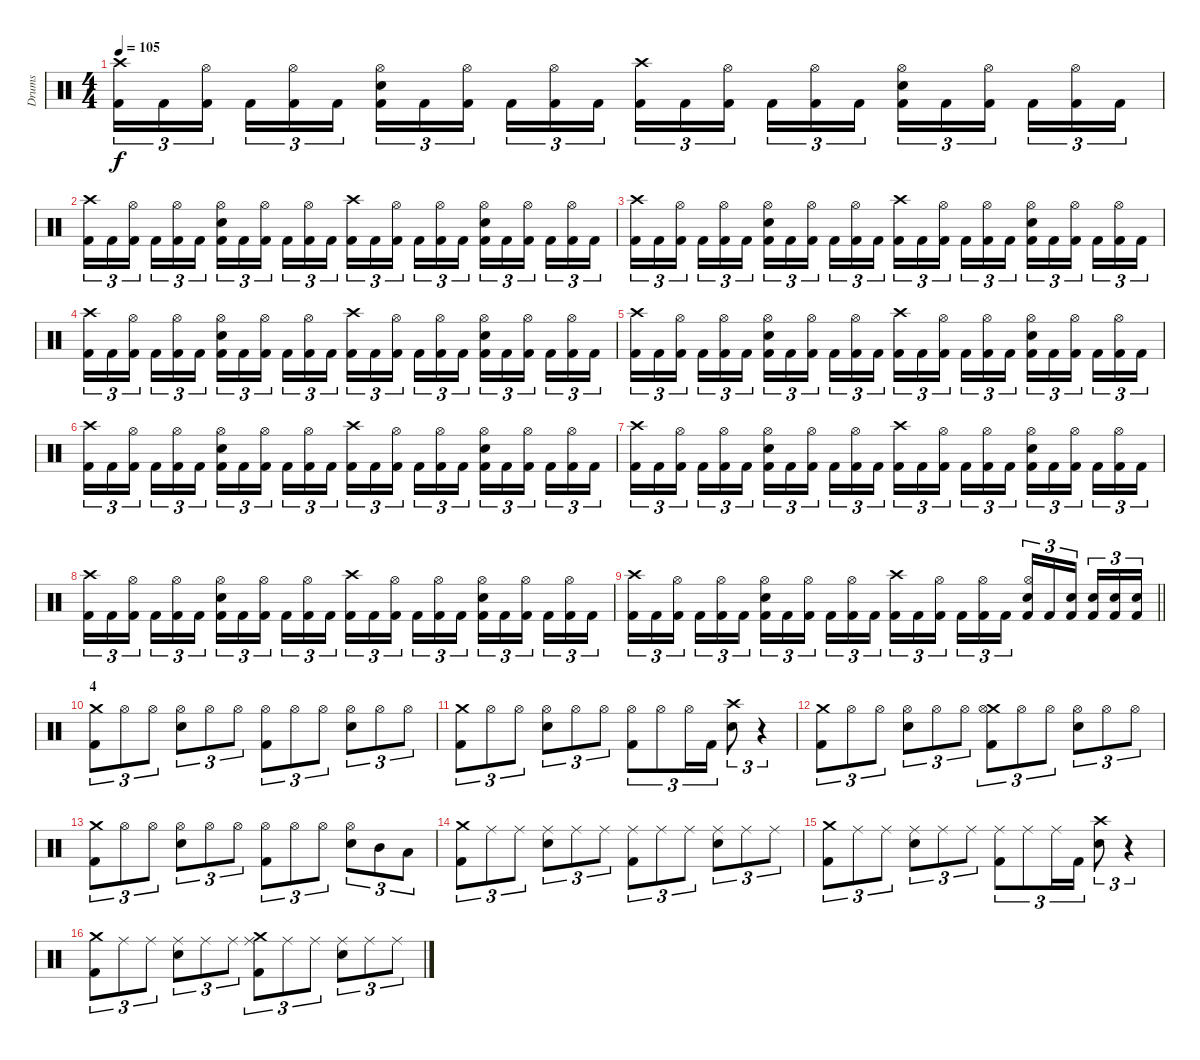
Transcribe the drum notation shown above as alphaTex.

\track ("Drums" "Drums") {instrument percussion}
\staff {score}
\articulation defaults
\ts (4 4)
\tempo 105
\clef neutral
\ks c
("Crash high (hit)" "Kick (hit) 2").16{tu (3 2) dy f} "Kick (hit) 2".16{tu (3 2)} ("Hi-Hat (open)" "Kick (hit) 2").16{tu (3 2) beam splitsecondary} "Kick (hit) 2".16{tu (3 2)} ("Hi-Hat (open)" "Kick (hit) 2").16{tu (3 2)} "Kick (hit) 2".16{tu (3 2)} ("Hi-Hat (open)" "Electric Snare (hit)" "Kick (hit) 2").16{tu (3 2)} "Kick (hit) 2".16{tu (3 2)} ("Hi-Hat (open)" "Kick (hit) 2").16{tu (3 2) beam splitsecondary} "Kick (hit) 2".16{tu (3 2)} ("Hi-Hat (open)" "Kick (hit) 2").16{tu (3 2)} "Kick (hit) 2".16{tu (3 2)} ("Crash high (hit)" "Kick (hit) 2").16{tu (3 2)} "Kick (hit) 2".16{tu (3 2)} ("Hi-Hat (open)" "Kick (hit) 2").16{tu (3 2) beam splitsecondary} "Kick (hit) 2".16{tu (3 2)} ("Hi-Hat (open)" "Kick (hit) 2").16{tu (3 2)} "Kick (hit) 2".16{tu (3 2)} ("Hi-Hat (open)" "Electric Snare (hit)" "Kick (hit) 2").16{tu (3 2)} "Kick (hit) 2".16{tu (3 2)} ("Hi-Hat (open)" "Kick (hit) 2").16{tu (3 2) beam splitsecondary} "Kick (hit) 2".16{tu (3 2)} ("Hi-Hat (open)" "Kick (hit) 2").16{tu (3 2)} "Kick (hit) 2".16{tu (3 2)} |
("Crash high (hit)" "Kick (hit) 2").16{tu (3 2)} "Kick (hit) 2".16{tu (3 2)} ("Hi-Hat (open)" "Kick (hit) 2").16{tu (3 2) beam splitsecondary} "Kick (hit) 2".16{tu (3 2)} ("Hi-Hat (open)" "Kick (hit) 2").16{tu (3 2)} "Kick (hit) 2".16{tu (3 2)} ("Hi-Hat (open)" "Electric Snare (hit)" "Kick (hit) 2").16{tu (3 2)} "Kick (hit) 2".16{tu (3 2)} ("Hi-Hat (open)" "Kick (hit) 2").16{tu (3 2) beam splitsecondary} "Kick (hit) 2".16{tu (3 2)} ("Hi-Hat (open)" "Kick (hit) 2").16{tu (3 2)} "Kick (hit) 2".16{tu (3 2)} ("Crash high (hit)" "Kick (hit) 2").16{tu (3 2)} "Kick (hit) 2".16{tu (3 2)} ("Hi-Hat (open)" "Kick (hit) 2").16{tu (3 2) beam splitsecondary} "Kick (hit) 2".16{tu (3 2)} ("Hi-Hat (open)" "Kick (hit) 2").16{tu (3 2)} "Kick (hit) 2".16{tu (3 2)} ("Hi-Hat (open)" "Electric Snare (hit)" "Kick (hit) 2").16{tu (3 2)} "Kick (hit) 2".16{tu (3 2)} ("Hi-Hat (open)" "Kick (hit) 2").16{tu (3 2) beam splitsecondary} "Kick (hit) 2".16{tu (3 2)} ("Hi-Hat (open)" "Kick (hit) 2").16{tu (3 2)} "Kick (hit) 2".16{tu (3 2)} |
("Crash high (hit)" "Kick (hit) 2").16{tu (3 2)} "Kick (hit) 2".16{tu (3 2)} ("Hi-Hat (open)" "Kick (hit) 2").16{tu (3 2) beam splitsecondary} "Kick (hit) 2".16{tu (3 2)} ("Hi-Hat (open)" "Kick (hit) 2").16{tu (3 2)} "Kick (hit) 2".16{tu (3 2)} ("Hi-Hat (open)" "Electric Snare (hit)" "Kick (hit) 2").16{tu (3 2)} "Kick (hit) 2".16{tu (3 2)} ("Hi-Hat (open)" "Kick (hit) 2").16{tu (3 2) beam splitsecondary} "Kick (hit) 2".16{tu (3 2)} ("Hi-Hat (open)" "Kick (hit) 2").16{tu (3 2)} "Kick (hit) 2".16{tu (3 2)} ("Crash high (hit)" "Kick (hit) 2").16{tu (3 2)} "Kick (hit) 2".16{tu (3 2)} ("Hi-Hat (open)" "Kick (hit) 2").16{tu (3 2) beam splitsecondary} "Kick (hit) 2".16{tu (3 2)} ("Hi-Hat (open)" "Kick (hit) 2").16{tu (3 2)} "Kick (hit) 2".16{tu (3 2)} ("Hi-Hat (open)" "Electric Snare (hit)" "Kick (hit) 2").16{tu (3 2)} "Kick (hit) 2".16{tu (3 2)} ("Hi-Hat (open)" "Kick (hit) 2").16{tu (3 2) beam splitsecondary} "Kick (hit) 2".16{tu (3 2)} ("Hi-Hat (open)" "Kick (hit) 2").16{tu (3 2)} "Kick (hit) 2".16{tu (3 2)} |
("Crash high (hit)" "Kick (hit) 2").16{tu (3 2)} "Kick (hit) 2".16{tu (3 2)} ("Hi-Hat (open)" "Kick (hit) 2").16{tu (3 2) beam splitsecondary} "Kick (hit) 2".16{tu (3 2)} ("Hi-Hat (open)" "Kick (hit) 2").16{tu (3 2)} "Kick (hit) 2".16{tu (3 2)} ("Hi-Hat (open)" "Electric Snare (hit)" "Kick (hit) 2").16{tu (3 2)} "Kick (hit) 2".16{tu (3 2)} ("Hi-Hat (open)" "Kick (hit) 2").16{tu (3 2) beam splitsecondary} "Kick (hit) 2".16{tu (3 2)} ("Hi-Hat (open)" "Kick (hit) 2").16{tu (3 2)} "Kick (hit) 2".16{tu (3 2)} ("Crash high (hit)" "Kick (hit) 2").16{tu (3 2)} "Kick (hit) 2".16{tu (3 2)} ("Hi-Hat (open)" "Kick (hit) 2").16{tu (3 2) beam splitsecondary} "Kick (hit) 2".16{tu (3 2)} ("Hi-Hat (open)" "Kick (hit) 2").16{tu (3 2)} "Kick (hit) 2".16{tu (3 2)} ("Hi-Hat (open)" "Electric Snare (hit)" "Kick (hit) 2").16{tu (3 2)} "Kick (hit) 2".16{tu (3 2)} ("Hi-Hat (open)" "Kick (hit) 2").16{tu (3 2) beam splitsecondary} "Kick (hit) 2".16{tu (3 2)} ("Hi-Hat (open)" "Kick (hit) 2").16{tu (3 2)} "Kick (hit) 2".16{tu (3 2)} |
("Crash high (hit)" "Kick (hit) 2").16{tu (3 2)} "Kick (hit) 2".16{tu (3 2)} ("Hi-Hat (open)" "Kick (hit) 2").16{tu (3 2) beam splitsecondary} "Kick (hit) 2".16{tu (3 2)} ("Hi-Hat (open)" "Kick (hit) 2").16{tu (3 2)} "Kick (hit) 2".16{tu (3 2)} ("Hi-Hat (open)" "Electric Snare (hit)" "Kick (hit) 2").16{tu (3 2)} "Kick (hit) 2".16{tu (3 2)} ("Hi-Hat (open)" "Kick (hit) 2").16{tu (3 2) beam splitsecondary} "Kick (hit) 2".16{tu (3 2)} ("Hi-Hat (open)" "Kick (hit) 2").16{tu (3 2)} "Kick (hit) 2".16{tu (3 2)} ("Crash high (hit)" "Kick (hit) 2").16{tu (3 2)} "Kick (hit) 2".16{tu (3 2)} ("Hi-Hat (open)" "Kick (hit) 2").16{tu (3 2) beam splitsecondary} "Kick (hit) 2".16{tu (3 2)} ("Hi-Hat (open)" "Kick (hit) 2").16{tu (3 2)} "Kick (hit) 2".16{tu (3 2)} ("Hi-Hat (open)" "Electric Snare (hit)" "Kick (hit) 2").16{tu (3 2)} "Kick (hit) 2".16{tu (3 2)} ("Hi-Hat (open)" "Kick (hit) 2").16{tu (3 2) beam splitsecondary} "Kick (hit) 2".16{tu (3 2)} ("Hi-Hat (open)" "Kick (hit) 2").16{tu (3 2)} "Kick (hit) 2".16{tu (3 2)} |
("Crash high (hit)" "Kick (hit) 2").16{tu (3 2)} "Kick (hit) 2".16{tu (3 2)} ("Hi-Hat (open)" "Kick (hit) 2").16{tu (3 2) beam splitsecondary} "Kick (hit) 2".16{tu (3 2)} ("Hi-Hat (open)" "Kick (hit) 2").16{tu (3 2)} "Kick (hit) 2".16{tu (3 2)} ("Hi-Hat (open)" "Electric Snare (hit)" "Kick (hit) 2").16{tu (3 2)} "Kick (hit) 2".16{tu (3 2)} ("Hi-Hat (open)" "Kick (hit) 2").16{tu (3 2) beam splitsecondary} "Kick (hit) 2".16{tu (3 2)} ("Hi-Hat (open)" "Kick (hit) 2").16{tu (3 2)} "Kick (hit) 2".16{tu (3 2)} ("Crash high (hit)" "Kick (hit) 2").16{tu (3 2)} "Kick (hit) 2".16{tu (3 2)} ("Hi-Hat (open)" "Kick (hit) 2").16{tu (3 2) beam splitsecondary} "Kick (hit) 2".16{tu (3 2)} ("Hi-Hat (open)" "Kick (hit) 2").16{tu (3 2)} "Kick (hit) 2".16{tu (3 2)} ("Hi-Hat (open)" "Electric Snare (hit)" "Kick (hit) 2").16{tu (3 2)} "Kick (hit) 2".16{tu (3 2)} ("Hi-Hat (open)" "Kick (hit) 2").16{tu (3 2) beam splitsecondary} "Kick (hit) 2".16{tu (3 2)} ("Hi-Hat (open)" "Kick (hit) 2").16{tu (3 2)} "Kick (hit) 2".16{tu (3 2)} |
("Crash high (hit)" "Kick (hit) 2").16{tu (3 2)} "Kick (hit) 2".16{tu (3 2)} ("Hi-Hat (open)" "Kick (hit) 2").16{tu (3 2) beam splitsecondary} "Kick (hit) 2".16{tu (3 2)} ("Hi-Hat (open)" "Kick (hit) 2").16{tu (3 2)} "Kick (hit) 2".16{tu (3 2)} ("Hi-Hat (open)" "Electric Snare (hit)" "Kick (hit) 2").16{tu (3 2)} "Kick (hit) 2".16{tu (3 2)} ("Hi-Hat (open)" "Kick (hit) 2").16{tu (3 2) beam splitsecondary} "Kick (hit) 2".16{tu (3 2)} ("Hi-Hat (open)" "Kick (hit) 2").16{tu (3 2)} "Kick (hit) 2".16{tu (3 2)} ("Crash high (hit)" "Kick (hit) 2").16{tu (3 2)} "Kick (hit) 2".16{tu (3 2)} ("Hi-Hat (open)" "Kick (hit) 2").16{tu (3 2) beam splitsecondary} "Kick (hit) 2".16{tu (3 2)} ("Hi-Hat (open)" "Kick (hit) 2").16{tu (3 2)} "Kick (hit) 2".16{tu (3 2)} ("Hi-Hat (open)" "Electric Snare (hit)" "Kick (hit) 2").16{tu (3 2)} "Kick (hit) 2".16{tu (3 2)} ("Hi-Hat (open)" "Kick (hit) 2").16{tu (3 2) beam splitsecondary} "Kick (hit) 2".16{tu (3 2)} ("Hi-Hat (open)" "Kick (hit) 2").16{tu (3 2)} "Kick (hit) 2".16{tu (3 2)} |
("Crash high (hit)" "Kick (hit) 2").16{tu (3 2)} "Kick (hit) 2".16{tu (3 2)} ("Hi-Hat (open)" "Kick (hit) 2").16{tu (3 2) beam splitsecondary} "Kick (hit) 2".16{tu (3 2)} ("Hi-Hat (open)" "Kick (hit) 2").16{tu (3 2)} "Kick (hit) 2".16{tu (3 2)} ("Hi-Hat (open)" "Electric Snare (hit)" "Kick (hit) 2").16{tu (3 2)} "Kick (hit) 2".16{tu (3 2)} ("Hi-Hat (open)" "Kick (hit) 2").16{tu (3 2) beam splitsecondary} "Kick (hit) 2".16{tu (3 2)} ("Hi-Hat (open)" "Kick (hit) 2").16{tu (3 2)} "Kick (hit) 2".16{tu (3 2)} ("Crash high (hit)" "Kick (hit) 2").16{tu (3 2)} "Kick (hit) 2".16{tu (3 2)} ("Hi-Hat (open)" "Kick (hit) 2").16{tu (3 2) beam splitsecondary} "Kick (hit) 2".16{tu (3 2)} ("Hi-Hat (open)" "Kick (hit) 2").16{tu (3 2)} "Kick (hit) 2".16{tu (3 2)} ("Hi-Hat (open)" "Electric Snare (hit)" "Kick (hit) 2").16{tu (3 2)} "Kick (hit) 2".16{tu (3 2)} ("Hi-Hat (open)" "Kick (hit) 2").16{tu (3 2) beam splitsecondary} "Kick (hit) 2".16{tu (3 2)} ("Hi-Hat (open)" "Kick (hit) 2").16{tu (3 2)} "Kick (hit) 2".16{tu (3 2)} |
\barLineRight lightlight
("Crash high (hit)" "Kick (hit) 2").16{tu (3 2)} "Kick (hit) 2".16{tu (3 2)} ("Hi-Hat (open)" "Kick (hit) 2").16{tu (3 2) beam splitsecondary} "Kick (hit) 2".16{tu (3 2)} ("Hi-Hat (open)" "Kick (hit) 2").16{tu (3 2)} "Kick (hit) 2".16{tu (3 2)} ("Hi-Hat (open)" "Electric Snare (hit)" "Kick (hit) 2").16{tu (3 2)} "Kick (hit) 2".16{tu (3 2)} ("Hi-Hat (open)" "Kick (hit) 2").16{tu (3 2) beam splitsecondary} "Kick (hit) 2".16{tu (3 2)} ("Hi-Hat (open)" "Kick (hit) 2").16{tu (3 2)} "Kick (hit) 2".16{tu (3 2)} ("Crash high (hit)" "Kick (hit) 2").16{tu (3 2)} "Kick (hit) 2".16{tu (3 2)} ("Hi-Hat (open)" "Kick (hit) 2").16{tu (3 2) beam splitsecondary} "Kick (hit) 2".16{tu (3 2)} ("Hi-Hat (open)" "Kick (hit) 2").16{tu (3 2)} "Kick (hit) 2".16{tu (3 2)} ("Hi-Hat (open)" "Electric Snare (hit)" "Kick (hit) 2").16{tu (3 2)} "Kick (hit) 2".16{tu (3 2)} ("Electric Snare (hit)" "Kick (hit) 2").16{tu (3 2) beam splitsecondary} ("Electric Snare (hit)" "Kick (hit) 2").16{tu (3 2)} ("Electric Snare (hit)" "Kick (hit) 2").16{tu (3 2)} ("Electric Snare (hit)" "Kick (hit) 2").16{tu (3 2)} |
\section ("" "4")
("Crash medium (hit)" "Kick (hit) 2").8{tu (3 2)} "Hi-Hat (open)".8{tu (3 2)} "Hi-Hat (open)".8{tu (3 2)} ("Hi-Hat (open)" "Electric Snare (hit)").8{tu (3 2)} "Hi-Hat (open)".8{tu (3 2)} "Hi-Hat (open)".8{tu (3 2)} ("Hi-Hat (open)" "Kick (hit) 2").8{tu (3 2)} "Hi-Hat (open)".8{tu (3 2)} "Hi-Hat (open)".8{tu (3 2)} ("Hi-Hat (open)" "Electric Snare (hit)").8{tu (3 2)} "Hi-Hat (open)".8{tu (3 2)} "Hi-Hat (open)".8{tu (3 2)} |
("Crash medium (hit)" "Kick (hit) 2").8{tu (3 2)} "Hi-Hat (open)".8{tu (3 2)} "Hi-Hat (open)".8{tu (3 2)} ("Hi-Hat (open)" "Electric Snare (hit)").8{tu (3 2)} "Hi-Hat (open)".8{tu (3 2)} "Hi-Hat (open)".8{tu (3 2)} ("Hi-Hat (open)" "Kick (hit) 2").8{tu (3 2)} "Hi-Hat (open)".8{tu (3 2)} "Hi-Hat (open)".16{tu (3 2)} "Kick (hit) 2".16{tu (3 2)} ("Crash high (hit)" "Electric Snare (hit)").8{tu (3 2)} r.4{tu (3 2)} |
("Crash medium (hit)" "Kick (hit) 2").8{tu (3 2)} "Hi-Hat (open)".8{tu (3 2)} "Hi-Hat (open)".8{tu (3 2)} ("Hi-Hat (open)" "Electric Snare (hit)").8{tu (3 2)} "Hi-Hat (open)".8{tu (3 2)} "Hi-Hat (open)".8{tu (3 2)} ("Crash medium (hit)" "Hi-Hat (open)" "Kick (hit) 2").8{tu (3 2)} "Hi-Hat (open)".8{tu (3 2)} "Hi-Hat (open)".8{tu (3 2)} ("Hi-Hat (open)" "Electric Snare (hit)").8{tu (3 2)} "Hi-Hat (open)".8{tu (3 2)} "Hi-Hat (open)".8{tu (3 2)} |
("Crash medium (hit)" "Kick (hit) 2").8{tu (3 2)} "Hi-Hat (open)".8{tu (3 2)} "Hi-Hat (open)".8{tu (3 2)} ("Hi-Hat (open)" "Electric Snare (hit)").8{tu (3 2)} "Hi-Hat (open)".8{tu (3 2)} "Hi-Hat (open)".8{tu (3 2)} ("Hi-Hat (open)" "Kick (hit) 2").8{tu (3 2)} "Hi-Hat (open)".8{tu (3 2)} "Hi-Hat (open)".8{tu (3 2)} ("Hi-Hat (open)" "Electric Snare (hit)").8{tu (3 2)} "Mid Tom (hit)".8{tu (3 2)} "Low Tom (hit)".8{tu (3 2)} |
("Crash medium (hit)" "Kick (hit) 2").8{tu (3 2)} "Ride (middle)".8{tu (3 2)} "Ride (middle)".8{tu (3 2)} ("Ride (middle)" "Electric Snare (hit)").8{tu (3 2)} "Ride (middle)".8{tu (3 2)} "Ride (middle)".8{tu (3 2)} ("Ride (middle)" "Kick (hit) 2").8{tu (3 2)} "Ride (middle)".8{tu (3 2)} "Ride (middle)".8{tu (3 2)} ("Ride (middle)" "Electric Snare (hit)").8{tu (3 2)} "Ride (middle)".8{tu (3 2)} "Ride (middle)".8{tu (3 2)} |
("Crash medium (hit)" "Kick (hit) 2").8{tu (3 2)} "Ride (middle)".8{tu (3 2)} "Ride (middle)".8{tu (3 2)} ("Ride (middle)" "Electric Snare (hit)").8{tu (3 2)} "Ride (middle)".8{tu (3 2)} "Ride (middle)".8{tu (3 2)} ("Ride (middle)" "Kick (hit) 2").8{tu (3 2)} "Ride (middle)".8{tu (3 2)} "Ride (middle)".16{tu (3 2)} "Kick (hit) 2".16{tu (3 2)} ("Crash high (hit)" "Electric Snare (hit)").8{tu (3 2)} r.4{tu (3 2)} |
("Crash medium (hit)" "Kick (hit) 2").8{tu (3 2)} "Ride (middle)".8{tu (3 2)} "Ride (middle)".8{tu (3 2)} ("Ride (middle)" "Electric Snare (hit)").8{tu (3 2)} "Ride (middle)".8{tu (3 2)} "Ride (middle)".8{tu (3 2)} ("Crash medium (hit)" "Ride (middle)" "Kick (hit) 2").8{tu (3 2)} "Ride (middle)".8{tu (3 2)} "Ride (middle)".8{tu (3 2)} ("Ride (middle)" "Electric Snare (hit)").8{tu (3 2)} "Ride (middle)".8{tu (3 2)} "Ride (middle)".8{tu (3 2)}
